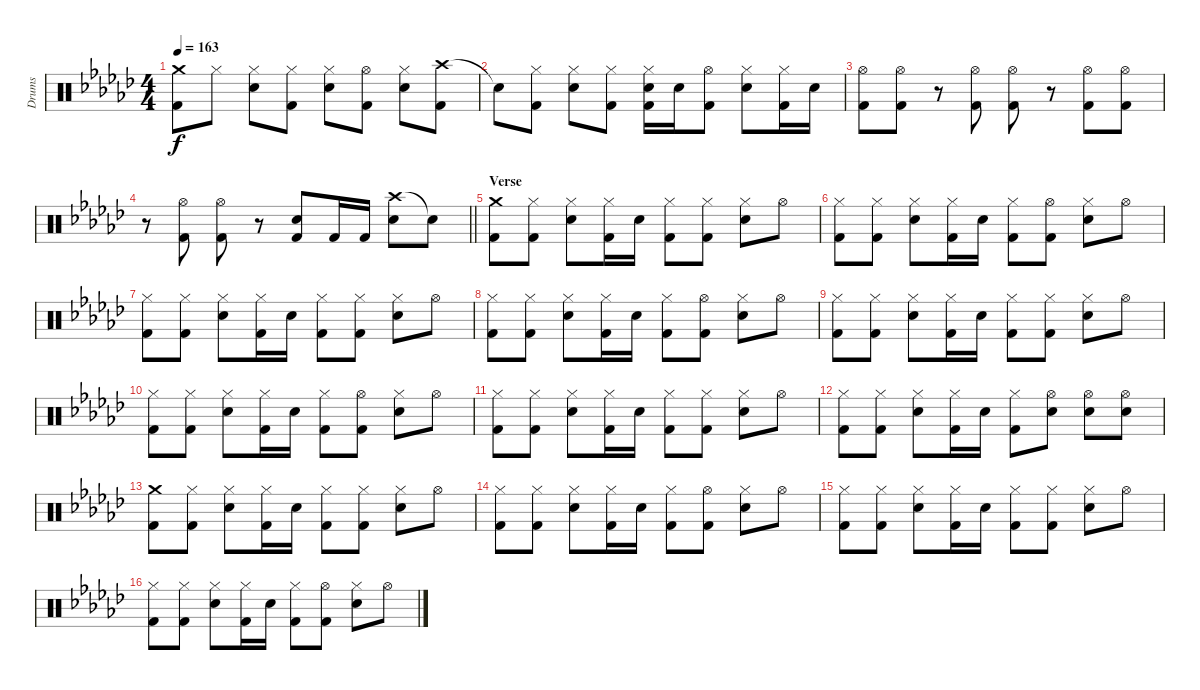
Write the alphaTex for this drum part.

\track ("Drums" "Drums") {mute instrument percussion}
\staff {score}
\articulation defaults
\ts (4 4)
\tempo 163
\clef neutral
\ks gb
("Crash medium (hit)" "Kick (hit) 2").8{dy f} "Hi-Hat (closed)".8 ("Hi-Hat (closed)" "Snare (hit) 2").8 ("Hi-Hat (closed)" "Kick (hit) 2").8 ("Hi-Hat (closed)" "Snare (hit) 2").8 ("Hi-Hat (open)" "Kick (hit) 2").8 ("Hi-Hat (closed)" "Snare (hit) 2").8 ("Crash high (hit)" "Kick (hit) 2").8 |
"Snare (hit)"{t}.8 ("Hi-Hat (closed)" "Kick (hit) 2").8 ("Hi-Hat (closed)" "Snare (hit) 2").8 ("Hi-Hat (closed)" "Kick (hit) 2").8 ("Hi-Hat (closed)" "Snare (hit) 2" "Kick (hit) 2").16 "Snare (hit) 2".16 ("Hi-Hat (open)" "Kick (hit) 2").8 ("Hi-Hat (closed)" "Snare (hit) 2").8 ("Hi-Hat (closed)" "Kick (hit) 2").16 "Snare (hit) 2".16 |
("Hi-Hat (open)" "Kick (hit) 2").8 ("Hi-Hat (open)" "Kick (hit) 2").8 r.8 ("Hi-Hat (open)" "Kick (hit) 2").8 ("Hi-Hat (open)" "Kick (hit) 2").8 r.8 ("Hi-Hat (open)" "Kick (hit) 2").8 ("Hi-Hat (open)" "Kick (hit) 2").8 |
\barLineRight lightlight
r.8 ("Hi-Hat (open)" "Kick (hit) 2").8 ("Hi-Hat (open)" "Kick (hit) 2").8 r.8 ("Snare (hit) 2" "Kick (hit) 2").8 "Kick (hit) 2".16 "Kick (hit) 2".16 ("Crash high (hit)" "Snare (hit) 2").8 "Snare (hit)"{t}.8 |
\section ("" "Verse")
("Crash medium (hit)" "Kick (hit) 2").8 ("Hi-Hat (closed)" "Kick (hit) 2").8 ("Hi-Hat (closed)" "Snare (hit) 2").8 ("Hi-Hat (closed)" "Kick (hit) 2").16 "Snare (hit) 2".16 ("Hi-Hat (closed)" "Kick (hit) 2").8 ("Hi-Hat (closed)" "Kick (hit) 2").8 ("Hi-Hat (closed)" "Snare (hit) 2").8 "Hi-Hat (open)".8 |
("Hi-Hat (closed)" "Kick (hit) 2").8 ("Hi-Hat (closed)" "Kick (hit) 2").8 ("Hi-Hat (closed)" "Snare (hit) 2").8 ("Hi-Hat (closed)" "Kick (hit) 2").16 "Snare (hit) 2".16 ("Hi-Hat (closed)" "Kick (hit) 2").8 ("Hi-Hat (open)" "Kick (hit) 2").8 ("Hi-Hat (closed)" "Snare (hit) 2").8 "Hi-Hat (open)".8 |
("Hi-Hat (closed)" "Kick (hit) 2").8 ("Hi-Hat (closed)" "Kick (hit) 2").8 ("Hi-Hat (closed)" "Snare (hit) 2").8 ("Hi-Hat (closed)" "Kick (hit) 2").16 "Snare (hit) 2".16 ("Hi-Hat (closed)" "Kick (hit) 2").8 ("Hi-Hat (closed)" "Kick (hit) 2").8 ("Hi-Hat (closed)" "Snare (hit) 2").8 "Hi-Hat (open)".8 |
("Hi-Hat (closed)" "Kick (hit) 2").8 ("Hi-Hat (closed)" "Kick (hit) 2").8 ("Hi-Hat (closed)" "Snare (hit) 2").8 ("Hi-Hat (closed)" "Kick (hit) 2").16 "Snare (hit) 2".16 ("Hi-Hat (closed)" "Kick (hit) 2").8 ("Hi-Hat (open)" "Kick (hit) 2").8 ("Hi-Hat (closed)" "Snare (hit) 2").8 "Hi-Hat (open)".8 |
("Hi-Hat (closed)" "Kick (hit) 2").8 ("Hi-Hat (closed)" "Kick (hit) 2").8 ("Hi-Hat (closed)" "Snare (hit) 2").8 ("Hi-Hat (closed)" "Kick (hit) 2").16 "Snare (hit) 2".16 ("Hi-Hat (closed)" "Kick (hit) 2").8 ("Hi-Hat (closed)" "Kick (hit) 2").8 ("Hi-Hat (closed)" "Snare (hit) 2").8 "Hi-Hat (open)".8 |
("Hi-Hat (closed)" "Kick (hit) 2").8 ("Hi-Hat (closed)" "Kick (hit) 2").8 ("Hi-Hat (closed)" "Snare (hit) 2").8 ("Hi-Hat (closed)" "Kick (hit) 2").16 "Snare (hit) 2".16 ("Hi-Hat (closed)" "Kick (hit) 2").8 ("Hi-Hat (open)" "Kick (hit) 2").8 ("Hi-Hat (closed)" "Snare (hit) 2").8 "Hi-Hat (open)".8 |
("Hi-Hat (closed)" "Kick (hit) 2").8 ("Hi-Hat (closed)" "Kick (hit) 2").8 ("Hi-Hat (closed)" "Snare (hit) 2").8 ("Hi-Hat (closed)" "Kick (hit) 2").16 "Snare (hit) 2".16 ("Hi-Hat (closed)" "Kick (hit) 2").8 ("Hi-Hat (closed)" "Kick (hit) 2").8 ("Hi-Hat (closed)" "Snare (hit) 2").8 "Hi-Hat (open)".8 |
("Hi-Hat (closed)" "Kick (hit) 2").8 ("Hi-Hat (closed)" "Kick (hit) 2").8 ("Hi-Hat (closed)" "Snare (hit) 2").8 ("Hi-Hat (closed)" "Kick (hit) 2").16 "Snare (hit) 2".16 ("Hi-Hat (closed)" "Kick (hit) 2").8 ("Hi-Hat (open)" "Snare (hit) 2").8 ("Hi-Hat (open)" "Snare (hit) 2").8 ("Hi-Hat (open)" "Snare (hit) 2").8 |
("Crash medium (hit)" "Kick (hit) 2").8 ("Hi-Hat (closed)" "Kick (hit) 2").8 ("Hi-Hat (closed)" "Snare (hit) 2").8 ("Hi-Hat (closed)" "Kick (hit) 2").16 "Snare (hit) 2".16 ("Hi-Hat (closed)" "Kick (hit) 2").8 ("Hi-Hat (closed)" "Kick (hit) 2").8 ("Hi-Hat (closed)" "Snare (hit) 2").8 "Hi-Hat (open)".8 |
("Hi-Hat (closed)" "Kick (hit) 2").8 ("Hi-Hat (closed)" "Kick (hit) 2").8 ("Hi-Hat (closed)" "Snare (hit) 2").8 ("Hi-Hat (closed)" "Kick (hit) 2").16 "Snare (hit) 2".16 ("Hi-Hat (closed)" "Kick (hit) 2").8 ("Hi-Hat (open)" "Kick (hit) 2").8 ("Hi-Hat (closed)" "Snare (hit) 2").8 "Hi-Hat (open)".8 |
("Hi-Hat (closed)" "Kick (hit) 2").8 ("Hi-Hat (closed)" "Kick (hit) 2").8 ("Hi-Hat (closed)" "Snare (hit) 2").8 ("Hi-Hat (closed)" "Kick (hit) 2").16 "Snare (hit) 2".16 ("Hi-Hat (closed)" "Kick (hit) 2").8 ("Hi-Hat (closed)" "Kick (hit) 2").8 ("Hi-Hat (closed)" "Snare (hit) 2").8 "Hi-Hat (open)".8 |
("Hi-Hat (closed)" "Kick (hit) 2").8 ("Hi-Hat (closed)" "Kick (hit) 2").8 ("Hi-Hat (closed)" "Snare (hit) 2").8 ("Hi-Hat (closed)" "Kick (hit) 2").16 "Snare (hit) 2".16 ("Hi-Hat (closed)" "Kick (hit) 2").8 ("Hi-Hat (open)" "Kick (hit) 2").8 ("Hi-Hat (closed)" "Snare (hit) 2").8 "Hi-Hat (open)".8
